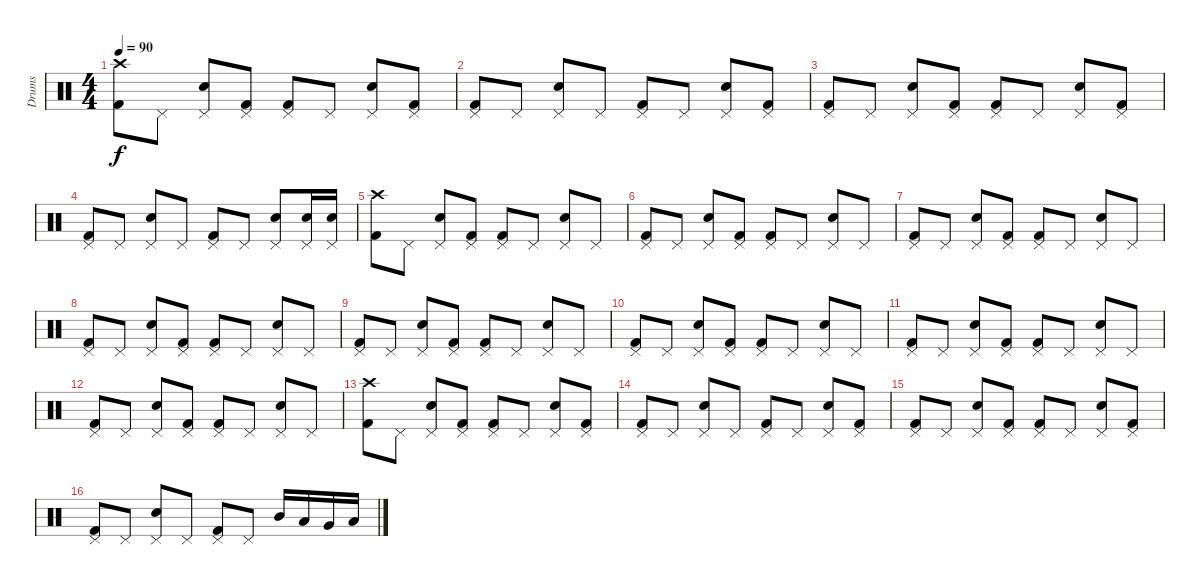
\track ("Drums" "Drums") {instrument percussion}
\staff {score}
\articulation defaults
\ts (4 4)
\tempo 90
\clef neutral
\ks c
("Crash high (hit)" "Kick (hit) 2").8{dy f} "Pedal Hi-Hat (hit)".8 ("Pedal Hi-Hat (hit)" "Electric Snare (hit)").8 ("Pedal Hi-Hat (hit)" "Kick (hit) 2").8 ("Pedal Hi-Hat (hit)" "Kick (hit) 2").8 "Pedal Hi-Hat (hit)".8 ("Pedal Hi-Hat (hit)" "Electric Snare (hit)").8 ("Pedal Hi-Hat (hit)" "Kick (hit) 2").8 |
("Pedal Hi-Hat (hit)" "Kick (hit) 2").8 "Pedal Hi-Hat (hit)".8 ("Pedal Hi-Hat (hit)" "Electric Snare (hit)").8 "Pedal Hi-Hat (hit)".8 ("Pedal Hi-Hat (hit)" "Kick (hit) 2").8 "Pedal Hi-Hat (hit)".8 ("Pedal Hi-Hat (hit)" "Electric Snare (hit)").8 ("Pedal Hi-Hat (hit)" "Kick (hit) 2").8 |
("Pedal Hi-Hat (hit)" "Kick (hit) 2").8 "Pedal Hi-Hat (hit)".8 ("Pedal Hi-Hat (hit)" "Electric Snare (hit)").8 ("Pedal Hi-Hat (hit)" "Kick (hit) 2").8 ("Pedal Hi-Hat (hit)" "Kick (hit) 2").8 "Pedal Hi-Hat (hit)".8 ("Pedal Hi-Hat (hit)" "Electric Snare (hit)").8 ("Pedal Hi-Hat (hit)" "Kick (hit) 2").8 |
("Pedal Hi-Hat (hit)" "Kick (hit) 2").8 "Pedal Hi-Hat (hit)".8 ("Pedal Hi-Hat (hit)" "Electric Snare (hit)").8 "Pedal Hi-Hat (hit)".8 ("Pedal Hi-Hat (hit)" "Kick (hit) 2").8 "Pedal Hi-Hat (hit)".8 ("Pedal Hi-Hat (hit)" "Electric Snare (hit)").8 ("Pedal Hi-Hat (hit)" "Electric Snare (hit)").16 ("Pedal Hi-Hat (hit)" "Electric Snare (hit)").16 |
("Crash high (hit)" "Kick (hit) 2").8 "Pedal Hi-Hat (hit)".8 ("Pedal Hi-Hat (hit)" "Electric Snare (hit)").8 ("Pedal Hi-Hat (hit)" "Kick (hit) 2").8 ("Pedal Hi-Hat (hit)" "Kick (hit) 2").8 "Pedal Hi-Hat (hit)".8 ("Pedal Hi-Hat (hit)" "Electric Snare (hit)").8 "Pedal Hi-Hat (hit)".8 |
("Pedal Hi-Hat (hit)" "Kick (hit) 2").8 "Pedal Hi-Hat (hit)".8 ("Pedal Hi-Hat (hit)" "Electric Snare (hit)").8 ("Pedal Hi-Hat (hit)" "Kick (hit) 2").8 ("Pedal Hi-Hat (hit)" "Kick (hit) 2").8 "Pedal Hi-Hat (hit)".8 ("Pedal Hi-Hat (hit)" "Electric Snare (hit)").8 "Pedal Hi-Hat (hit)".8 |
("Pedal Hi-Hat (hit)" "Kick (hit) 2").8 "Pedal Hi-Hat (hit)".8 ("Pedal Hi-Hat (hit)" "Electric Snare (hit)").8 ("Pedal Hi-Hat (hit)" "Kick (hit) 2").8 ("Pedal Hi-Hat (hit)" "Kick (hit) 2").8 "Pedal Hi-Hat (hit)".8 ("Pedal Hi-Hat (hit)" "Electric Snare (hit)").8 "Pedal Hi-Hat (hit)".8 |
("Pedal Hi-Hat (hit)" "Kick (hit) 2").8 "Pedal Hi-Hat (hit)".8 ("Pedal Hi-Hat (hit)" "Electric Snare (hit)").8 ("Pedal Hi-Hat (hit)" "Kick (hit) 2").8 ("Pedal Hi-Hat (hit)" "Kick (hit) 2").8 "Pedal Hi-Hat (hit)".8 ("Pedal Hi-Hat (hit)" "Electric Snare (hit)").8 "Pedal Hi-Hat (hit)".8 |
("Pedal Hi-Hat (hit)" "Kick (hit) 2").8 "Pedal Hi-Hat (hit)".8 ("Pedal Hi-Hat (hit)" "Electric Snare (hit)").8 ("Pedal Hi-Hat (hit)" "Kick (hit) 2").8 ("Pedal Hi-Hat (hit)" "Kick (hit) 2").8 "Pedal Hi-Hat (hit)".8 ("Pedal Hi-Hat (hit)" "Electric Snare (hit)").8 "Pedal Hi-Hat (hit)".8 |
("Pedal Hi-Hat (hit)" "Kick (hit) 2").8 "Pedal Hi-Hat (hit)".8 ("Pedal Hi-Hat (hit)" "Electric Snare (hit)").8 ("Pedal Hi-Hat (hit)" "Kick (hit) 2").8 ("Pedal Hi-Hat (hit)" "Kick (hit) 2").8 "Pedal Hi-Hat (hit)".8 ("Pedal Hi-Hat (hit)" "Electric Snare (hit)").8 "Pedal Hi-Hat (hit)".8 |
("Pedal Hi-Hat (hit)" "Kick (hit) 2").8 "Pedal Hi-Hat (hit)".8 ("Pedal Hi-Hat (hit)" "Electric Snare (hit)").8 ("Pedal Hi-Hat (hit)" "Kick (hit) 2").8 ("Pedal Hi-Hat (hit)" "Kick (hit) 2").8 "Pedal Hi-Hat (hit)".8 ("Pedal Hi-Hat (hit)" "Electric Snare (hit)").8 "Pedal Hi-Hat (hit)".8 |
("Pedal Hi-Hat (hit)" "Kick (hit) 2").8 "Pedal Hi-Hat (hit)".8 ("Pedal Hi-Hat (hit)" "Electric Snare (hit)").8 ("Pedal Hi-Hat (hit)" "Kick (hit) 2").8 ("Pedal Hi-Hat (hit)" "Kick (hit) 2").8 "Pedal Hi-Hat (hit)".8 ("Pedal Hi-Hat (hit)" "Electric Snare (hit)").8 "Pedal Hi-Hat (hit)".8 |
("Crash high (hit)" "Kick (hit) 2").8 "Pedal Hi-Hat (hit)".8 ("Pedal Hi-Hat (hit)" "Electric Snare (hit)").8 ("Pedal Hi-Hat (hit)" "Kick (hit) 2").8 ("Pedal Hi-Hat (hit)" "Kick (hit) 2").8 "Pedal Hi-Hat (hit)".8 ("Pedal Hi-Hat (hit)" "Electric Snare (hit)").8 ("Pedal Hi-Hat (hit)" "Kick (hit) 2").8 |
("Pedal Hi-Hat (hit)" "Kick (hit) 2").8 "Pedal Hi-Hat (hit)".8 ("Pedal Hi-Hat (hit)" "Electric Snare (hit)").8 "Pedal Hi-Hat (hit)".8 ("Pedal Hi-Hat (hit)" "Kick (hit) 2").8 "Pedal Hi-Hat (hit)".8 ("Pedal Hi-Hat (hit)" "Electric Snare (hit)").8 ("Pedal Hi-Hat (hit)" "Kick (hit) 2").8 |
("Pedal Hi-Hat (hit)" "Kick (hit) 2").8 "Pedal Hi-Hat (hit)".8 ("Pedal Hi-Hat (hit)" "Electric Snare (hit)").8 ("Pedal Hi-Hat (hit)" "Kick (hit) 2").8 ("Pedal Hi-Hat (hit)" "Kick (hit) 2").8 "Pedal Hi-Hat (hit)".8 ("Pedal Hi-Hat (hit)" "Electric Snare (hit)").8 ("Pedal Hi-Hat (hit)" "Kick (hit) 2").8 |
("Pedal Hi-Hat (hit)" "Kick (hit) 2").8 "Pedal Hi-Hat (hit)".8 ("Pedal Hi-Hat (hit)" "Electric Snare (hit)").8 "Pedal Hi-Hat (hit)".8 ("Pedal Hi-Hat (hit)" "Kick (hit) 2").8 "Pedal Hi-Hat (hit)".8 "Mid Tom (hit)".16 "Low Tom (hit)".16 "Very Low Tom (hit)".16 "Low Floor Tom (hit)".16
